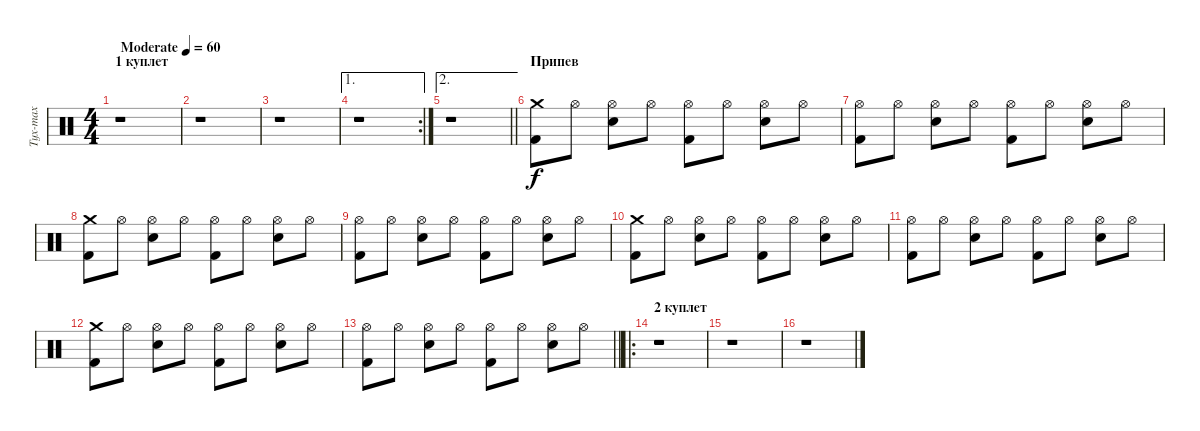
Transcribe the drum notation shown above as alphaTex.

\track ("Тух-тах" "Тух-тах") {instrument percussion}
\staff {score}
\articulation defaults
\ts (4 4)
\section ("" "1 куплет")
\tempo (60 "Moderate")
\clef neutral
\ks c
r.1{dy f} |
r.1 |
r.1 |
\ae 1
\rc 2
r.1 |
\ae 2
\barLineRight lightlight
r.1 |
\section ("" "Припев")
("Crash medium (hit)" "Kick (hit) 2").8 "Hi-Hat (open)".8 ("Hi-Hat (open)" "Snare (hit) 2").8 "Hi-Hat (open)".8 ("Hi-Hat (open)" "Kick (hit) 2").8 "Hi-Hat (open)".8 ("Hi-Hat (open)" "Snare (hit) 2").8 "Hi-Hat (open)".8 |
("Hi-Hat (open)" "Kick (hit) 2").8 "Hi-Hat (open)".8 ("Hi-Hat (open)" "Snare (hit) 2").8 "Hi-Hat (open)".8 ("Hi-Hat (open)" "Kick (hit) 2").8 "Hi-Hat (open)".8 ("Hi-Hat (open)" "Snare (hit) 2").8 "Hi-Hat (open)".8 |
("Crash medium (hit)" "Kick (hit) 2").8 "Hi-Hat (open)".8 ("Hi-Hat (open)" "Snare (hit) 2").8 "Hi-Hat (open)".8 ("Hi-Hat (open)" "Kick (hit) 2").8 "Hi-Hat (open)".8 ("Hi-Hat (open)" "Snare (hit) 2").8 "Hi-Hat (open)".8 |
("Hi-Hat (open)" "Kick (hit) 2").8 "Hi-Hat (open)".8 ("Hi-Hat (open)" "Snare (hit) 2").8 "Hi-Hat (open)".8 ("Hi-Hat (open)" "Kick (hit) 2").8 "Hi-Hat (open)".8 ("Hi-Hat (open)" "Snare (hit) 2").8 "Hi-Hat (open)".8 |
("Crash medium (hit)" "Kick (hit) 2").8 "Hi-Hat (open)".8 ("Hi-Hat (open)" "Snare (hit) 2").8 "Hi-Hat (open)".8 ("Hi-Hat (open)" "Kick (hit) 2").8 "Hi-Hat (open)".8 ("Hi-Hat (open)" "Snare (hit) 2").8 "Hi-Hat (open)".8 |
("Hi-Hat (open)" "Kick (hit) 2").8 "Hi-Hat (open)".8 ("Hi-Hat (open)" "Snare (hit) 2").8 "Hi-Hat (open)".8 ("Hi-Hat (open)" "Kick (hit) 2").8 "Hi-Hat (open)".8 ("Hi-Hat (open)" "Snare (hit) 2").8 "Hi-Hat (open)".8 |
("Crash medium (hit)" "Kick (hit) 2").8 "Hi-Hat (open)".8 ("Hi-Hat (open)" "Snare (hit) 2").8 "Hi-Hat (open)".8 ("Hi-Hat (open)" "Kick (hit) 2").8 "Hi-Hat (open)".8 ("Hi-Hat (open)" "Snare (hit) 2").8 "Hi-Hat (open)".8 |
\barLineRight lightlight
("Hi-Hat (open)" "Kick (hit) 2").8 "Hi-Hat (open)".8 ("Hi-Hat (open)" "Snare (hit) 2").8 "Hi-Hat (open)".8 ("Hi-Hat (open)" "Kick (hit) 2").8 "Hi-Hat (open)".8 ("Hi-Hat (open)" "Snare (hit) 2").8 "Hi-Hat (open)".8 |
\ro
\section ("" "2 куплет")
r.1 |
r.1 |
r.1
